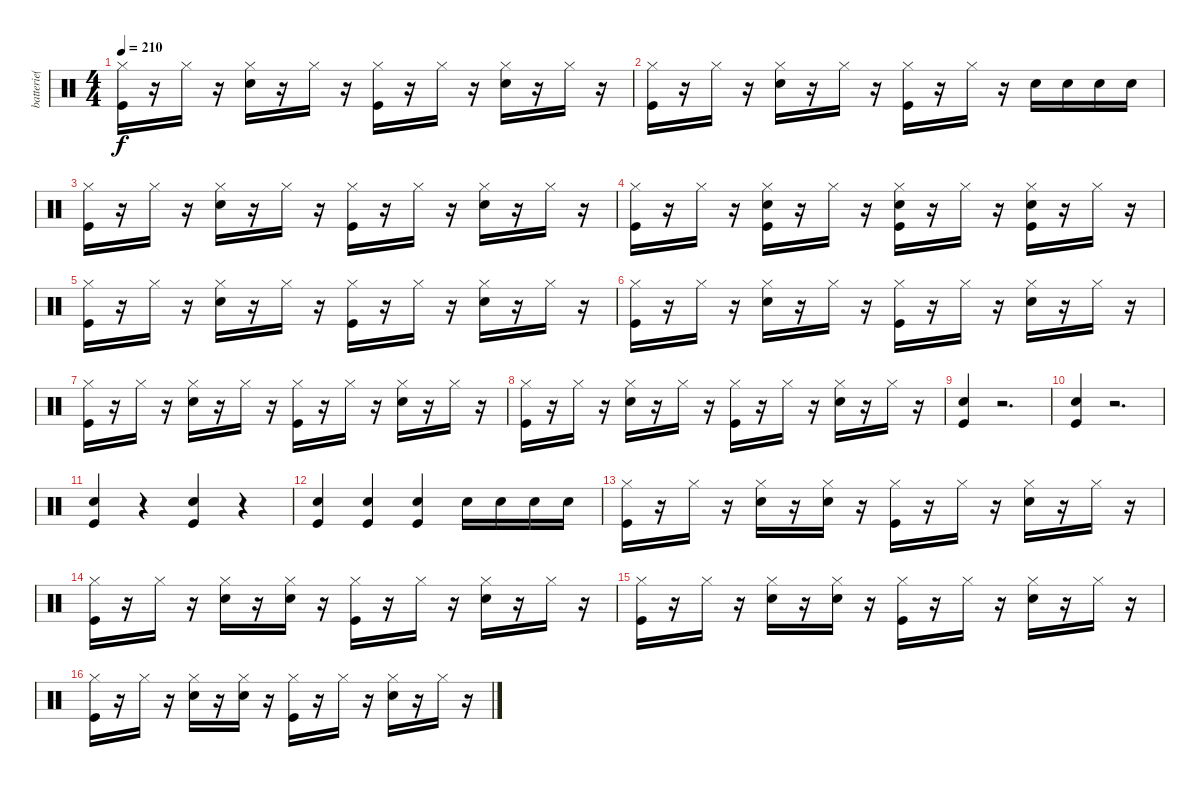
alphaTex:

\track ("batterie( Michael Davison )" "batterie( ") {instrument percussion}
\staff {score}
\articulation defaults
\ts (4 4)
\tempo 210
\clef neutral
\ks c
("Hi-Hat (closed)" "Kick (hit)").16{dy f} r.16 "Hi-Hat (closed)".16 r.16 ("Hi-Hat (closed)" "Snare (hit) 2").16 r.16 "Hi-Hat (closed)".16 r.16 ("Hi-Hat (closed)" "Kick (hit)").16 r.16 "Hi-Hat (closed)".16 r.16 ("Hi-Hat (closed)" "Snare (hit) 2").16 r.16 "Hi-Hat (closed)".16 r.16 |
("Hi-Hat (closed)" "Kick (hit)").16 r.16 "Hi-Hat (closed)".16 r.16 ("Hi-Hat (closed)" "Snare (hit) 2").16 r.16 "Hi-Hat (closed)".16 r.16 ("Hi-Hat (closed)" "Kick (hit)").16 r.16 "Hi-Hat (closed)".16 r.16 "Snare (hit) 2".16 "Snare (hit) 2".16 "Snare (hit) 2".16 "Snare (hit) 2".16 |
("Hi-Hat (closed)" "Kick (hit)").16 r.16 "Hi-Hat (closed)".16 r.16 ("Hi-Hat (closed)" "Snare (hit) 2").16 r.16 "Hi-Hat (closed)".16 r.16 ("Hi-Hat (closed)" "Kick (hit)").16 r.16 "Hi-Hat (closed)".16 r.16 ("Hi-Hat (closed)" "Snare (hit) 2").16 r.16 "Hi-Hat (closed)".16 r.16 |
("Hi-Hat (closed)" "Kick (hit)").16 r.16 "Hi-Hat (closed)".16 r.16 ("Hi-Hat (closed)" "Snare (hit) 2" "Kick (hit)").16 r.16 "Hi-Hat (closed)".16 r.16 ("Hi-Hat (closed)" "Snare (hit) 2" "Kick (hit)").16 r.16 "Hi-Hat (closed)".16 r.16 ("Hi-Hat (closed)" "Snare (hit) 2" "Kick (hit)").16 r.16 "Hi-Hat (closed)".16 r.16 |
("Hi-Hat (closed)" "Kick (hit)").16 r.16 "Hi-Hat (closed)".16 r.16 ("Hi-Hat (closed)" "Snare (hit) 2").16 r.16 "Hi-Hat (closed)".16 r.16 ("Hi-Hat (closed)" "Kick (hit)").16 r.16 "Hi-Hat (closed)".16 r.16 ("Hi-Hat (closed)" "Snare (hit) 2").16 r.16 "Hi-Hat (closed)".16 r.16 |
("Hi-Hat (closed)" "Kick (hit)").16 r.16 "Hi-Hat (closed)".16 r.16 ("Hi-Hat (closed)" "Snare (hit) 2").16 r.16 "Hi-Hat (closed)".16 r.16 ("Hi-Hat (closed)" "Kick (hit)").16 r.16 "Hi-Hat (closed)".16 r.16 ("Hi-Hat (closed)" "Snare (hit) 2").16 r.16 "Hi-Hat (closed)".16 r.16 |
("Hi-Hat (closed)" "Kick (hit)").16 r.16 "Hi-Hat (closed)".16 r.16 ("Hi-Hat (closed)" "Snare (hit) 2").16 r.16 "Hi-Hat (closed)".16 r.16 ("Hi-Hat (closed)" "Kick (hit)").16 r.16 "Hi-Hat (closed)".16 r.16 ("Hi-Hat (closed)" "Snare (hit) 2").16 r.16 "Hi-Hat (closed)".16 r.16 |
("Hi-Hat (closed)" "Kick (hit)").16 r.16 "Hi-Hat (closed)".16 r.16 ("Hi-Hat (closed)" "Snare (hit) 2").16 r.16 "Hi-Hat (closed)".16 r.16 ("Hi-Hat (closed)" "Kick (hit)").16 r.16 "Hi-Hat (closed)".16 r.16 ("Hi-Hat (closed)" "Snare (hit) 2").16 r.16 "Hi-Hat (closed)".16 r.16 |
("Snare (hit) 2" "Kick (hit)").4 r.2{d} |
("Snare (hit) 2" "Kick (hit)").4 r.2{d} |
("Snare (hit) 2" "Kick (hit)").4 r.4 ("Snare (hit) 2" "Kick (hit)").4 r.4 |
("Snare (hit) 2" "Kick (hit)").4 ("Snare (hit) 2" "Kick (hit)").4 ("Snare (hit) 2" "Kick (hit)").4 "Snare (hit) 2".16 "Snare (hit) 2".16 "Snare (hit) 2".16 "Snare (hit) 2".16 |
("Hi-Hat (closed)" "Kick (hit)").16 r.16 "Hi-Hat (closed)".16 r.16 ("Hi-Hat (closed)" "Snare (hit) 2").16 r.16 ("Hi-Hat (closed)" "Snare (hit) 2").16 r.16 ("Hi-Hat (closed)" "Kick (hit)").16 r.16 "Hi-Hat (closed)".16 r.16 ("Hi-Hat (closed)" "Snare (hit) 2").16 r.16 "Hi-Hat (closed)".16 r.16 |
("Hi-Hat (closed)" "Kick (hit)").16 r.16 "Hi-Hat (closed)".16 r.16 ("Hi-Hat (closed)" "Snare (hit) 2").16 r.16 ("Hi-Hat (closed)" "Snare (hit) 2").16 r.16 ("Hi-Hat (closed)" "Kick (hit)").16 r.16 "Hi-Hat (closed)".16 r.16 ("Hi-Hat (closed)" "Snare (hit) 2").16 r.16 "Hi-Hat (closed)".16 r.16 |
("Hi-Hat (closed)" "Kick (hit)").16 r.16 "Hi-Hat (closed)".16 r.16 ("Hi-Hat (closed)" "Snare (hit) 2").16 r.16 ("Hi-Hat (closed)" "Snare (hit) 2").16 r.16 ("Hi-Hat (closed)" "Kick (hit)").16 r.16 "Hi-Hat (closed)".16 r.16 ("Hi-Hat (closed)" "Snare (hit) 2").16 r.16 "Hi-Hat (closed)".16 r.16 |
("Hi-Hat (closed)" "Kick (hit)").16 r.16 "Hi-Hat (closed)".16 r.16 ("Hi-Hat (closed)" "Snare (hit) 2").16 r.16 ("Hi-Hat (closed)" "Snare (hit) 2").16 r.16 ("Hi-Hat (closed)" "Kick (hit)").16 r.16 "Hi-Hat (closed)".16 r.16 ("Hi-Hat (closed)" "Snare (hit) 2").16 r.16 "Hi-Hat (closed)".16 r.16
